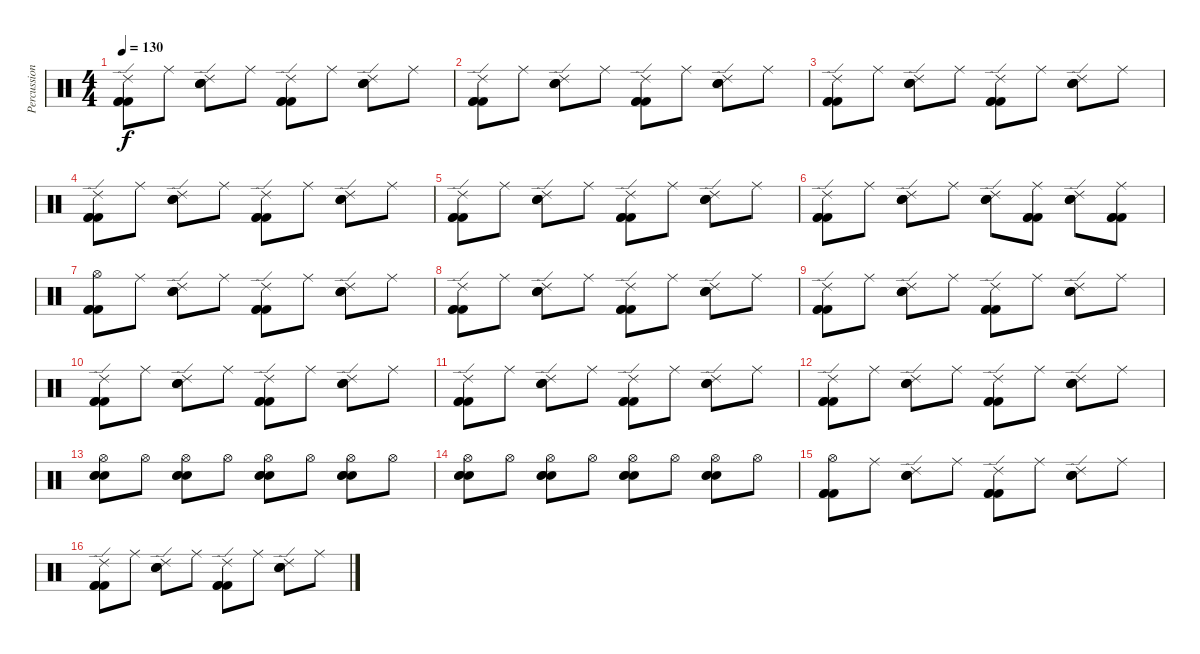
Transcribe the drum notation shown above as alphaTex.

\track ("Percussion" "Percussion") {instrument percussion}
\staff {score}
\articulation defaults
\ts (4 4)
\tempo 130
\clef neutral
\ks c
("Ride (edge) 2" "Kick (hit) 2" "Kick (hit) 2" "Kick (hit) 2").8{dy f} "Ride (middle)".8 ("Ride (edge) 2" "Electric Snare (hit)" "Electric Snare (hit)" "Electric Snare (hit)").8 "Ride (middle)".8 ("Ride (edge) 2" "Kick (hit) 2" "Kick (hit) 2" "Kick (hit) 2").8 "Ride (middle)".8 ("Ride (edge) 2" "Electric Snare (hit)" "Electric Snare (hit)" "Electric Snare (hit)").8 "Ride (middle)".8 |
("Ride (edge) 2" "Kick (hit) 2" "Kick (hit) 2" "Kick (hit) 2").8 "Ride (middle)".8 ("Ride (edge) 2" "Electric Snare (hit)" "Electric Snare (hit)" "Electric Snare (hit)").8 "Ride (middle)".8 ("Ride (edge) 2" "Kick (hit) 2" "Kick (hit) 2" "Kick (hit) 2").8 "Ride (middle)".8 ("Ride (edge) 2" "Electric Snare (hit)" "Electric Snare (hit)" "Electric Snare (hit)").8 "Ride (middle)".8 |
("Ride (edge) 2" "Kick (hit) 2" "Kick (hit) 2" "Kick (hit) 2").8 "Ride (middle)".8 ("Ride (edge) 2" "Electric Snare (hit)" "Electric Snare (hit)" "Electric Snare (hit)").8 "Ride (middle)".8 ("Ride (edge) 2" "Kick (hit) 2" "Kick (hit) 2" "Kick (hit) 2").8 "Ride (middle)".8 ("Ride (edge) 2" "Electric Snare (hit)" "Electric Snare (hit)" "Electric Snare (hit)").8 "Ride (middle)".8 |
("Ride (edge) 2" "Kick (hit) 2" "Kick (hit) 2" "Kick (hit) 2").8 "Ride (middle)".8 ("Ride (edge) 2" "Electric Snare (hit)" "Electric Snare (hit)" "Electric Snare (hit)").8 "Ride (middle)".8 ("Ride (edge) 2" "Kick (hit) 2" "Kick (hit) 2" "Kick (hit) 2").8 "Ride (middle)".8 ("Ride (edge) 2" "Electric Snare (hit)" "Electric Snare (hit)" "Electric Snare (hit)").8 "Ride (middle)".8 |
("Ride (edge) 2" "Kick (hit) 2" "Kick (hit) 2" "Kick (hit) 2").8 "Ride (middle)".8 ("Ride (edge) 2" "Electric Snare (hit)" "Electric Snare (hit)" "Electric Snare (hit)").8 "Ride (middle)".8 ("Ride (edge) 2" "Kick (hit) 2" "Kick (hit) 2" "Kick (hit) 2").8 "Ride (middle)".8 ("Ride (edge) 2" "Electric Snare (hit)" "Electric Snare (hit)" "Electric Snare (hit)").8 "Ride (middle)".8 |
("Ride (edge) 2" "Kick (hit) 2" "Kick (hit) 2" "Kick (hit) 2").8 "Ride (middle)".8 ("Ride (edge) 2" "Electric Snare (hit)" "Electric Snare (hit)" "Electric Snare (hit)").8 "Ride (middle)".8 ("Ride (edge) 2" "Electric Snare (hit)" "Electric Snare (hit)" "Electric Snare (hit)").8 ("Ride (middle)" "Kick (hit) 2" "Kick (hit) 2" "Kick (hit) 2").8 ("Ride (edge) 2" "Electric Snare (hit)" "Electric Snare (hit)" "Electric Snare (hit)").8 ("Ride (middle)" "Kick (hit) 2" "Kick (hit) 2" "Kick (hit) 2").8 |
("Hi-Hat (open)" "Kick (hit) 2" "Kick (hit) 2" "Kick (hit) 2").8 "Ride (middle)".8 ("Ride (edge) 2" "Electric Snare (hit)" "Electric Snare (hit)" "Electric Snare (hit)").8 "Ride (middle)".8 ("Ride (edge) 2" "Kick (hit) 2" "Kick (hit) 2" "Kick (hit) 2").8 "Ride (middle)".8 ("Ride (edge) 2" "Electric Snare (hit)" "Electric Snare (hit)" "Electric Snare (hit)").8 "Ride (middle)".8 |
("Ride (edge) 2" "Kick (hit) 2" "Kick (hit) 2" "Kick (hit) 2").8 "Ride (middle)".8 ("Ride (edge) 2" "Electric Snare (hit)" "Electric Snare (hit)" "Electric Snare (hit)").8 "Ride (middle)".8 ("Ride (edge) 2" "Kick (hit) 2" "Kick (hit) 2" "Kick (hit) 2").8 "Ride (middle)".8 ("Ride (edge) 2" "Electric Snare (hit)" "Electric Snare (hit)" "Electric Snare (hit)").8 "Ride (middle)".8 |
("Ride (edge) 2" "Kick (hit) 2" "Kick (hit) 2" "Kick (hit) 2").8 "Ride (middle)".8 ("Ride (edge) 2" "Electric Snare (hit)" "Electric Snare (hit)" "Electric Snare (hit)").8 "Ride (middle)".8 ("Ride (edge) 2" "Kick (hit) 2" "Kick (hit) 2" "Kick (hit) 2").8 "Ride (middle)".8 ("Ride (edge) 2" "Electric Snare (hit)" "Electric Snare (hit)" "Electric Snare (hit)").8 "Ride (middle)".8 |
("Ride (edge) 2" "Kick (hit) 2" "Kick (hit) 2" "Kick (hit) 2").8 "Ride (middle)".8 ("Ride (edge) 2" "Electric Snare (hit)" "Electric Snare (hit)" "Electric Snare (hit)").8 "Ride (middle)".8 ("Ride (edge) 2" "Kick (hit) 2" "Kick (hit) 2" "Kick (hit) 2").8 "Ride (middle)".8 ("Ride (edge) 2" "Electric Snare (hit)" "Electric Snare (hit)" "Electric Snare (hit)").8 "Ride (middle)".8 |
("Ride (edge) 2" "Kick (hit) 2" "Kick (hit) 2" "Kick (hit) 2").8 "Ride (middle)".8 ("Ride (edge) 2" "Electric Snare (hit)" "Electric Snare (hit)" "Electric Snare (hit)").8 "Ride (middle)".8 ("Ride (edge) 2" "Kick (hit) 2" "Kick (hit) 2" "Kick (hit) 2").8 "Ride (middle)".8 ("Ride (edge) 2" "Electric Snare (hit)" "Electric Snare (hit)" "Electric Snare (hit)").8 "Ride (middle)".8 |
("Ride (edge) 2" "Kick (hit) 2" "Kick (hit) 2" "Kick (hit) 2").8 "Ride (middle)".8 ("Ride (edge) 2" "Electric Snare (hit)" "Electric Snare (hit)" "Electric Snare (hit)").8 "Ride (middle)".8 ("Ride (edge) 2" "Kick (hit) 2" "Kick (hit) 2" "Kick (hit) 2").8 "Ride (middle)".8 ("Ride (edge) 2" "Electric Snare (hit)" "Electric Snare (hit)" "Electric Snare (hit)").8 "Ride (middle)".8 |
("Hi-Hat (open)" "Electric Snare (hit)" "Electric Snare (hit)" "Electric Snare (hit)").8 "Hi-Hat (open)".8 ("Hi-Hat (open)" "Electric Snare (hit)" "Electric Snare (hit)" "Electric Snare (hit)").8 "Hi-Hat (open)".8 ("Hi-Hat (open)" "Electric Snare (hit)" "Electric Snare (hit)" "Electric Snare (hit)").8 "Hi-Hat (open)".8 ("Hi-Hat (open)" "Electric Snare (hit)" "Electric Snare (hit)" "Electric Snare (hit)").8 "Hi-Hat (open)".8 |
("Hi-Hat (open)" "Electric Snare (hit)" "Electric Snare (hit)" "Electric Snare (hit)").8 "Hi-Hat (open)".8 ("Hi-Hat (open)" "Electric Snare (hit)" "Electric Snare (hit)" "Electric Snare (hit)").8 "Hi-Hat (open)".8 ("Hi-Hat (open)" "Electric Snare (hit)" "Electric Snare (hit)" "Electric Snare (hit)").8 "Hi-Hat (open)".8 ("Hi-Hat (open)" "Electric Snare (hit)" "Electric Snare (hit)" "Electric Snare (hit)").8 "Hi-Hat (open)".8 |
("Hi-Hat (open)" "Kick (hit) 2" "Kick (hit) 2" "Kick (hit) 2").8 "Ride (middle)".8 ("Ride (edge) 2" "Electric Snare (hit)" "Electric Snare (hit)" "Electric Snare (hit)").8 "Ride (middle)".8 ("Ride (edge) 2" "Kick (hit) 2" "Kick (hit) 2" "Kick (hit) 2").8 "Ride (middle)".8 ("Ride (edge) 2" "Electric Snare (hit)" "Electric Snare (hit)" "Electric Snare (hit)").8 "Ride (middle)".8 |
("Ride (edge) 2" "Kick (hit) 2" "Kick (hit) 2" "Kick (hit) 2").8 "Ride (middle)".8 ("Ride (edge) 2" "Electric Snare (hit)" "Electric Snare (hit)" "Electric Snare (hit)").8 "Ride (middle)".8 ("Ride (edge) 2" "Kick (hit) 2" "Kick (hit) 2" "Kick (hit) 2").8 "Ride (middle)".8 ("Ride (edge) 2" "Electric Snare (hit)" "Electric Snare (hit)" "Electric Snare (hit)").8 "Ride (middle)".8
